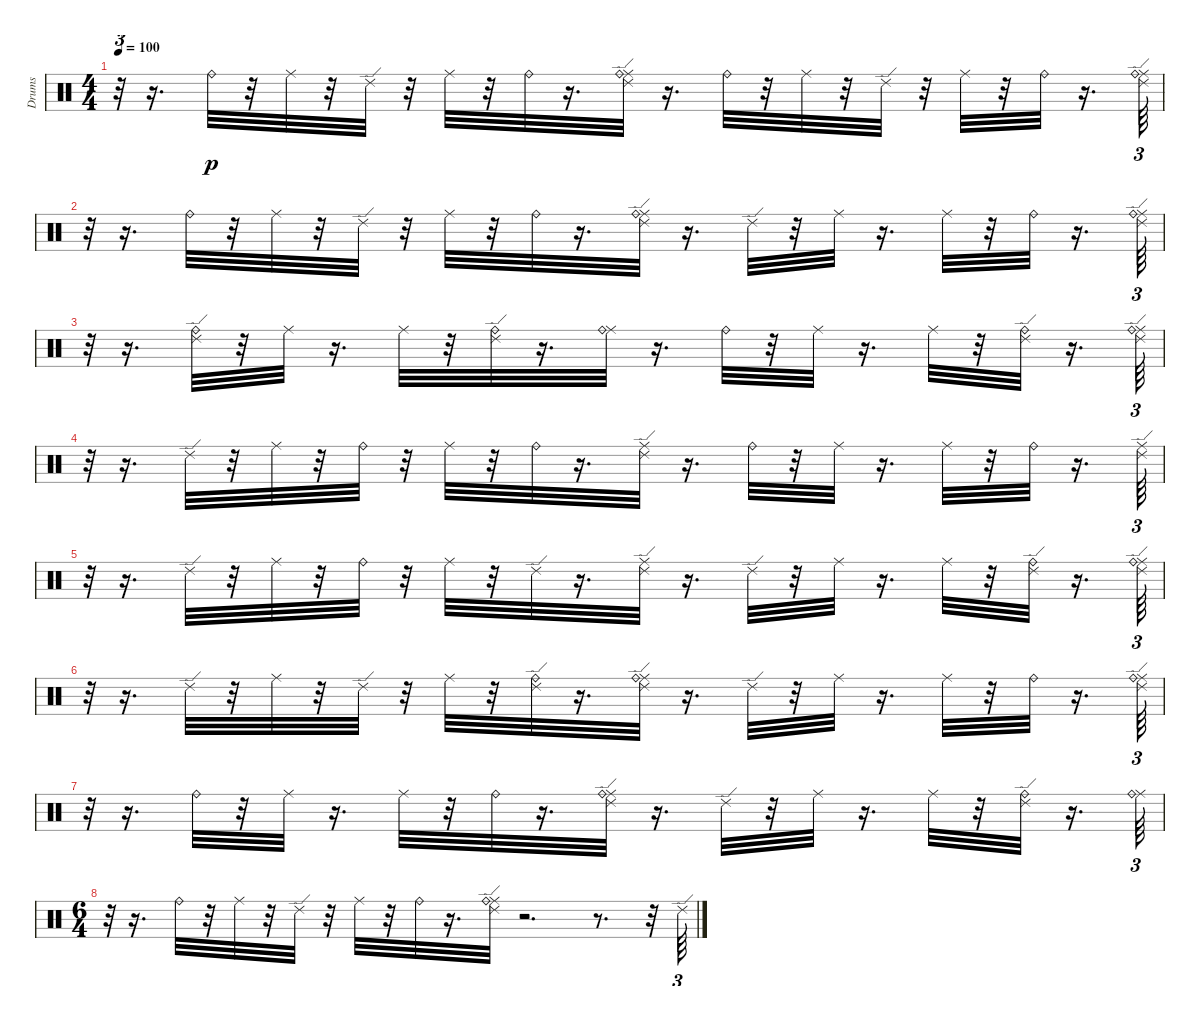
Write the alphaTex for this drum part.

\track ("Drums" "Drums") {instrument percussion}
\staff {score}
\articulation defaults
\ts (4 4)
\tempo 100
\clef neutral
\ks c
r.32{tu (3 2) dy p} r.16{d} "Ride (bell)".32 r.32 "Ride (middle)".32 r.32 "Ride (edge) 2".32 r.32 "Ride (middle)".32 r.32 "Ride (bell)".32 r.16{d} ("Ride (middle)" "Ride (edge) 2" "Ride (bell)").32 r.16{d} "Ride (bell)".32 r.32 "Ride (middle)".32 r.32 "Ride (edge) 2".32 r.32 "Ride (middle)".32 r.32 "Ride (bell)".32 r.16{d} ("Ride (middle)" "Ride (edge) 2" "Ride (bell)").64{tu (3 2)} |
r.32{tu (3 2)} r.16{d} "Ride (bell)".32 r.32 "Ride (middle)".32 r.32 "Ride (edge) 2".32 r.32 "Ride (middle)".32 r.32 "Ride (bell)".32 r.16{d} ("Ride (middle)" "Ride (edge) 2" "Ride (bell)").32 r.16{d} "Ride (edge) 2".32 r.32 "Ride (middle)".32 r.16{d} "Ride (middle)".32 r.32 "Ride (bell)".32 r.16{d} ("Ride (middle)" "Ride (edge) 2" "Ride (bell)").64{tu (3 2)} |
r.32{tu (3 2)} r.16{d} ("Ride (edge) 2" "Ride (bell)").32 r.32 "Ride (middle)".32 r.16{d} "Ride (middle)".32 r.32 ("Ride (edge) 2" "Ride (bell)").32 r.16{d} ("Ride (middle)" "Ride (bell)").32 r.16{d} "Ride (bell)".32 r.32 "Ride (middle)".32 r.16{d} "Ride (middle)".32 r.32 ("Ride (bell)" "Ride (edge) 2").32 r.16{d} ("Ride (middle)" "Ride (edge) 2" "Ride (bell)").64{tu (3 2)} |
r.32{tu (3 2)} r.16{d} "Ride (edge) 2".32 r.32 "Ride (middle)".32 r.32 "Ride (bell)".32 r.32 "Ride (middle)".32 r.32 "Ride (bell)".32 r.16{d} ("Ride (middle)" "Ride (edge) 2").32 r.16{d} "Ride (bell)".32 r.32 "Ride (middle)".32 r.16{d} "Ride (middle)".32 r.32 "Ride (bell)".32 r.16{d} ("Ride (middle)" "Ride (edge) 2").64{tu (3 2)} |
r.32{tu (3 2)} r.16{d} "Ride (edge) 2".32 r.32 "Ride (middle)".32 r.32 "Ride (bell)".32 r.32 "Ride (middle)".32 r.32 "Ride (edge) 2".32 r.16{d} ("Ride (middle)" "Ride (edge) 2").32 r.16{d} "Ride (edge) 2".32 r.32 "Ride (middle)".32 r.16{d} "Ride (middle)".32 r.32 ("Ride (bell)" "Ride (edge) 2").32 r.16{d} ("Ride (middle)" "Ride (bell)" "Ride (edge) 2").64{tu (3 2)} |
r.32{tu (3 2)} r.16{d} "Ride (edge) 2".32 r.32 "Ride (middle)".32 r.32 "Ride (edge) 2".32 r.32 "Ride (middle)".32 r.32 ("Ride (bell)" "Ride (edge) 2").32 r.16{d} ("Ride (middle)" "Ride (edge) 2" "Ride (bell)").32 r.16{d} "Ride (edge) 2".32 r.32 "Ride (middle)".32 r.16{d} "Ride (middle)".32 r.32 "Ride (bell)".32 r.16{d} ("Ride (middle)" "Ride (bell)" "Ride (edge) 2").64{tu (3 2)} |
r.32{tu (3 2)} r.16{d} "Ride (bell)".32 r.32 "Ride (middle)".32 r.16{d} "Ride (middle)".32 r.32 "Ride (bell)".32 r.16{d} ("Ride (middle)" "Ride (edge) 2" "Ride (bell)").32 r.16{d} "Ride (edge) 2".32 r.32 "Ride (middle)".32 r.16{d} "Ride (middle)".32 r.32 ("Ride (edge) 2" "Ride (bell)").32 r.16{d} ("Ride (middle)" "Ride (bell)").64{tu (3 2)} |
\ts (6 4)
r.32{tu (3 2)} r.16{d} "Ride (bell)".32 r.32 "Ride (middle)".32 r.32 "Ride (edge) 2".32 r.32 "Ride (middle)".32 r.32 "Ride (bell)".32 r.16{d} ("Ride (middle)" "Ride (edge) 2" "Ride (bell)").32 r.2{d} r.8{d} r.32 "Ride (edge) 2".64{tu (3 2)}
